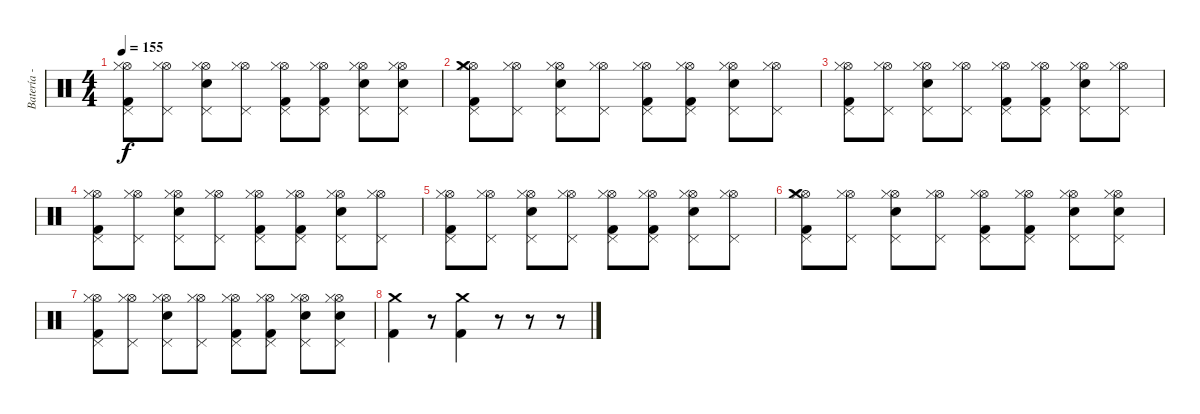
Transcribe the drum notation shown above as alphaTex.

\track ("Batería - Edu" "Batería - ") {instrument percussion}
\staff {score}
\articulation defaults
\ts (4 4)
\tempo 155
\clef neutral
\ks c
("Hi-Hat (open)" "Pedal Hi-Hat (hit)" "Hi-Hat (closed)" "Kick (hit) 2").8{dy f} ("Hi-Hat (open)" "Pedal Hi-Hat (hit)" "Hi-Hat (closed)").8 ("Hi-Hat (open)" "Pedal Hi-Hat (hit)" "Hi-Hat (closed)" "Electric Snare (hit)").8 ("Hi-Hat (open)" "Pedal Hi-Hat (hit)" "Hi-Hat (closed)").8 ("Hi-Hat (open)" "Pedal Hi-Hat (hit)" "Hi-Hat (closed)" "Kick (hit) 2").8 ("Hi-Hat (open)" "Pedal Hi-Hat (hit)" "Hi-Hat (closed)" "Kick (hit) 2").8 ("Hi-Hat (open)" "Pedal Hi-Hat (hit)" "Hi-Hat (closed)" "Electric Snare (hit)").8 ("Hi-Hat (open)" "Pedal Hi-Hat (hit)" "Hi-Hat (closed)" "Electric Snare (hit)").8 |
("Hi-Hat (open)" "Pedal Hi-Hat (hit)" "Hi-Hat (closed)" "Kick (hit) 2" "Crash medium (hit)").8 ("Hi-Hat (open)" "Pedal Hi-Hat (hit)" "Hi-Hat (closed)").8 ("Hi-Hat (open)" "Pedal Hi-Hat (hit)" "Hi-Hat (closed)" "Electric Snare (hit)").8 ("Hi-Hat (open)" "Pedal Hi-Hat (hit)" "Hi-Hat (closed)").8 ("Hi-Hat (open)" "Pedal Hi-Hat (hit)" "Hi-Hat (closed)" "Kick (hit) 2").8 ("Hi-Hat (open)" "Pedal Hi-Hat (hit)" "Hi-Hat (closed)" "Kick (hit) 2").8 ("Hi-Hat (open)" "Pedal Hi-Hat (hit)" "Hi-Hat (closed)" "Electric Snare (hit)").8 ("Hi-Hat (open)" "Pedal Hi-Hat (hit)" "Hi-Hat (closed)").8 |
("Hi-Hat (open)" "Pedal Hi-Hat (hit)" "Hi-Hat (closed)" "Kick (hit) 2").8 ("Hi-Hat (open)" "Pedal Hi-Hat (hit)" "Hi-Hat (closed)").8 ("Hi-Hat (open)" "Pedal Hi-Hat (hit)" "Hi-Hat (closed)" "Electric Snare (hit)").8 ("Hi-Hat (open)" "Pedal Hi-Hat (hit)" "Hi-Hat (closed)").8 ("Hi-Hat (open)" "Pedal Hi-Hat (hit)" "Hi-Hat (closed)" "Kick (hit) 2").8 ("Hi-Hat (open)" "Pedal Hi-Hat (hit)" "Hi-Hat (closed)" "Kick (hit) 2").8 ("Hi-Hat (open)" "Pedal Hi-Hat (hit)" "Hi-Hat (closed)" "Electric Snare (hit)").8 ("Hi-Hat (open)" "Pedal Hi-Hat (hit)" "Hi-Hat (closed)").8 |
("Hi-Hat (open)" "Pedal Hi-Hat (hit)" "Hi-Hat (closed)" "Kick (hit) 2").8 ("Hi-Hat (open)" "Pedal Hi-Hat (hit)" "Hi-Hat (closed)").8 ("Hi-Hat (open)" "Pedal Hi-Hat (hit)" "Hi-Hat (closed)" "Electric Snare (hit)").8 ("Hi-Hat (open)" "Pedal Hi-Hat (hit)" "Hi-Hat (closed)").8 ("Hi-Hat (open)" "Pedal Hi-Hat (hit)" "Hi-Hat (closed)" "Kick (hit) 2").8 ("Hi-Hat (open)" "Pedal Hi-Hat (hit)" "Hi-Hat (closed)" "Kick (hit) 2").8 ("Hi-Hat (open)" "Pedal Hi-Hat (hit)" "Hi-Hat (closed)" "Electric Snare (hit)").8 ("Hi-Hat (open)" "Pedal Hi-Hat (hit)" "Hi-Hat (closed)").8 |
("Hi-Hat (open)" "Pedal Hi-Hat (hit)" "Hi-Hat (closed)" "Kick (hit) 2").8 ("Hi-Hat (open)" "Pedal Hi-Hat (hit)" "Hi-Hat (closed)").8 ("Hi-Hat (open)" "Pedal Hi-Hat (hit)" "Hi-Hat (closed)" "Electric Snare (hit)").8 ("Hi-Hat (open)" "Pedal Hi-Hat (hit)" "Hi-Hat (closed)").8 ("Hi-Hat (open)" "Pedal Hi-Hat (hit)" "Hi-Hat (closed)" "Kick (hit) 2").8 ("Hi-Hat (open)" "Pedal Hi-Hat (hit)" "Hi-Hat (closed)" "Kick (hit) 2").8 ("Hi-Hat (open)" "Pedal Hi-Hat (hit)" "Hi-Hat (closed)" "Electric Snare (hit)").8 ("Hi-Hat (open)" "Pedal Hi-Hat (hit)" "Hi-Hat (closed)").8 |
("Hi-Hat (open)" "Pedal Hi-Hat (hit)" "Hi-Hat (closed)" "Kick (hit) 2" "Crash medium (hit)").8 ("Hi-Hat (open)" "Pedal Hi-Hat (hit)" "Hi-Hat (closed)").8 ("Hi-Hat (open)" "Pedal Hi-Hat (hit)" "Hi-Hat (closed)" "Electric Snare (hit)").8 ("Hi-Hat (open)" "Pedal Hi-Hat (hit)" "Hi-Hat (closed)").8 ("Hi-Hat (open)" "Pedal Hi-Hat (hit)" "Hi-Hat (closed)" "Kick (hit) 2").8 ("Hi-Hat (open)" "Pedal Hi-Hat (hit)" "Hi-Hat (closed)" "Kick (hit) 2").8 ("Hi-Hat (open)" "Pedal Hi-Hat (hit)" "Hi-Hat (closed)" "Electric Snare (hit)").8 ("Hi-Hat (open)" "Pedal Hi-Hat (hit)" "Hi-Hat (closed)" "Electric Snare (hit)").8 |
("Hi-Hat (open)" "Pedal Hi-Hat (hit)" "Hi-Hat (closed)" "Kick (hit) 2").8 ("Hi-Hat (open)" "Pedal Hi-Hat (hit)" "Hi-Hat (closed)").8 ("Hi-Hat (open)" "Pedal Hi-Hat (hit)" "Hi-Hat (closed)" "Electric Snare (hit)").8 ("Hi-Hat (open)" "Pedal Hi-Hat (hit)" "Hi-Hat (closed)").8 ("Hi-Hat (open)" "Pedal Hi-Hat (hit)" "Hi-Hat (closed)" "Kick (hit) 2").8 ("Hi-Hat (open)" "Pedal Hi-Hat (hit)" "Hi-Hat (closed)" "Kick (hit) 2").8 ("Hi-Hat (open)" "Pedal Hi-Hat (hit)" "Hi-Hat (closed)" "Electric Snare (hit)").8 ("Hi-Hat (open)" "Pedal Hi-Hat (hit)" "Hi-Hat (closed)" "Electric Snare (hit)").8 |
("Crash medium (hit)" "Kick (hit) 2").4 r.8 ("Crash medium (hit)" "Kick (hit) 2").4 r.8 r.8 r.8
